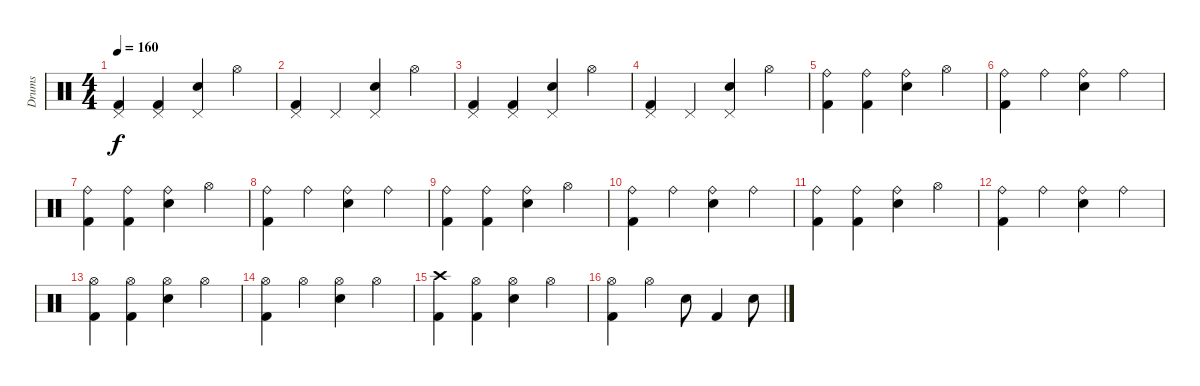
\track ("Drums" "Drums") {instrument percussion}
\staff {score}
\articulation defaults
\ts (4 4)
\tempo 160
\clef neutral
\ks c
("Pedal Hi-Hat (hit)" "Kick (hit) 2").4{dy f} ("Pedal Hi-Hat (hit)" "Kick (hit) 2").4 ("Pedal Hi-Hat (hit)" "Electric Snare (hit)").4 "Hi-Hat (open)".4 |
("Pedal Hi-Hat (hit)" "Kick (hit) 2").4 "Pedal Hi-Hat (hit)".4 ("Pedal Hi-Hat (hit)" "Electric Snare (hit)").4 "Hi-Hat (open)".4 |
("Pedal Hi-Hat (hit)" "Kick (hit) 2").4 ("Pedal Hi-Hat (hit)" "Kick (hit) 2").4 ("Pedal Hi-Hat (hit)" "Electric Snare (hit)").4 "Hi-Hat (open)".4 |
("Pedal Hi-Hat (hit)" "Kick (hit) 2").4 "Pedal Hi-Hat (hit)".4 ("Pedal Hi-Hat (hit)" "Electric Snare (hit)").4 "Hi-Hat (open)".4 |
("Ride (bell)" "Kick (hit) 2").4 ("Ride (bell)" "Kick (hit) 2").4 ("Ride (bell)" "Electric Snare (hit)").4 "Hi-Hat (open)".4 |
("Ride (bell)" "Kick (hit) 2").4 "Ride (bell)".4 ("Ride (bell)" "Electric Snare (hit)").4 "Ride (bell)".4 |
("Ride (bell)" "Kick (hit) 2").4 ("Ride (bell)" "Kick (hit) 2").4 ("Ride (bell)" "Electric Snare (hit)").4 "Hi-Hat (open)".4 |
("Ride (bell)" "Kick (hit) 2").4 "Ride (bell)".4 ("Ride (bell)" "Electric Snare (hit)").4 "Ride (bell)".4 |
("Ride (bell)" "Kick (hit) 2").4 ("Ride (bell)" "Kick (hit) 2").4 ("Ride (bell)" "Electric Snare (hit)").4 "Hi-Hat (open)".4 |
("Ride (bell)" "Kick (hit) 2").4 "Ride (bell)".4 ("Ride (bell)" "Electric Snare (hit)").4 "Ride (bell)".4 |
("Ride (bell)" "Kick (hit) 2").4 ("Ride (bell)" "Kick (hit) 2").4 ("Ride (bell)" "Electric Snare (hit)").4 "Hi-Hat (open)".4 |
("Ride (bell)" "Kick (hit) 2").4 "Ride (bell)".4 ("Ride (bell)" "Electric Snare (hit)").4 "Ride (bell)".4 |
("Hi-Hat (open)" "Kick (hit) 2").4 ("Hi-Hat (open)" "Kick (hit) 2").4 ("Hi-Hat (open)" "Electric Snare (hit)").4 "Hi-Hat (open)".4 |
("Hi-Hat (open)" "Kick (hit) 2").4 "Hi-Hat (open)".4 ("Hi-Hat (open)" "Electric Snare (hit)").4 "Hi-Hat (open)".4 |
("Crash high (hit)" "Kick (hit) 2").4 ("Hi-Hat (open)" "Kick (hit) 2").4 ("Hi-Hat (open)" "Electric Snare (hit)").4 "Hi-Hat (open)".4 |
("Hi-Hat (open)" "Kick (hit) 2").4 "Hi-Hat (open)".4 "Electric Snare (hit)".8 "Kick (hit) 2".4 "Electric Snare (hit)".8
